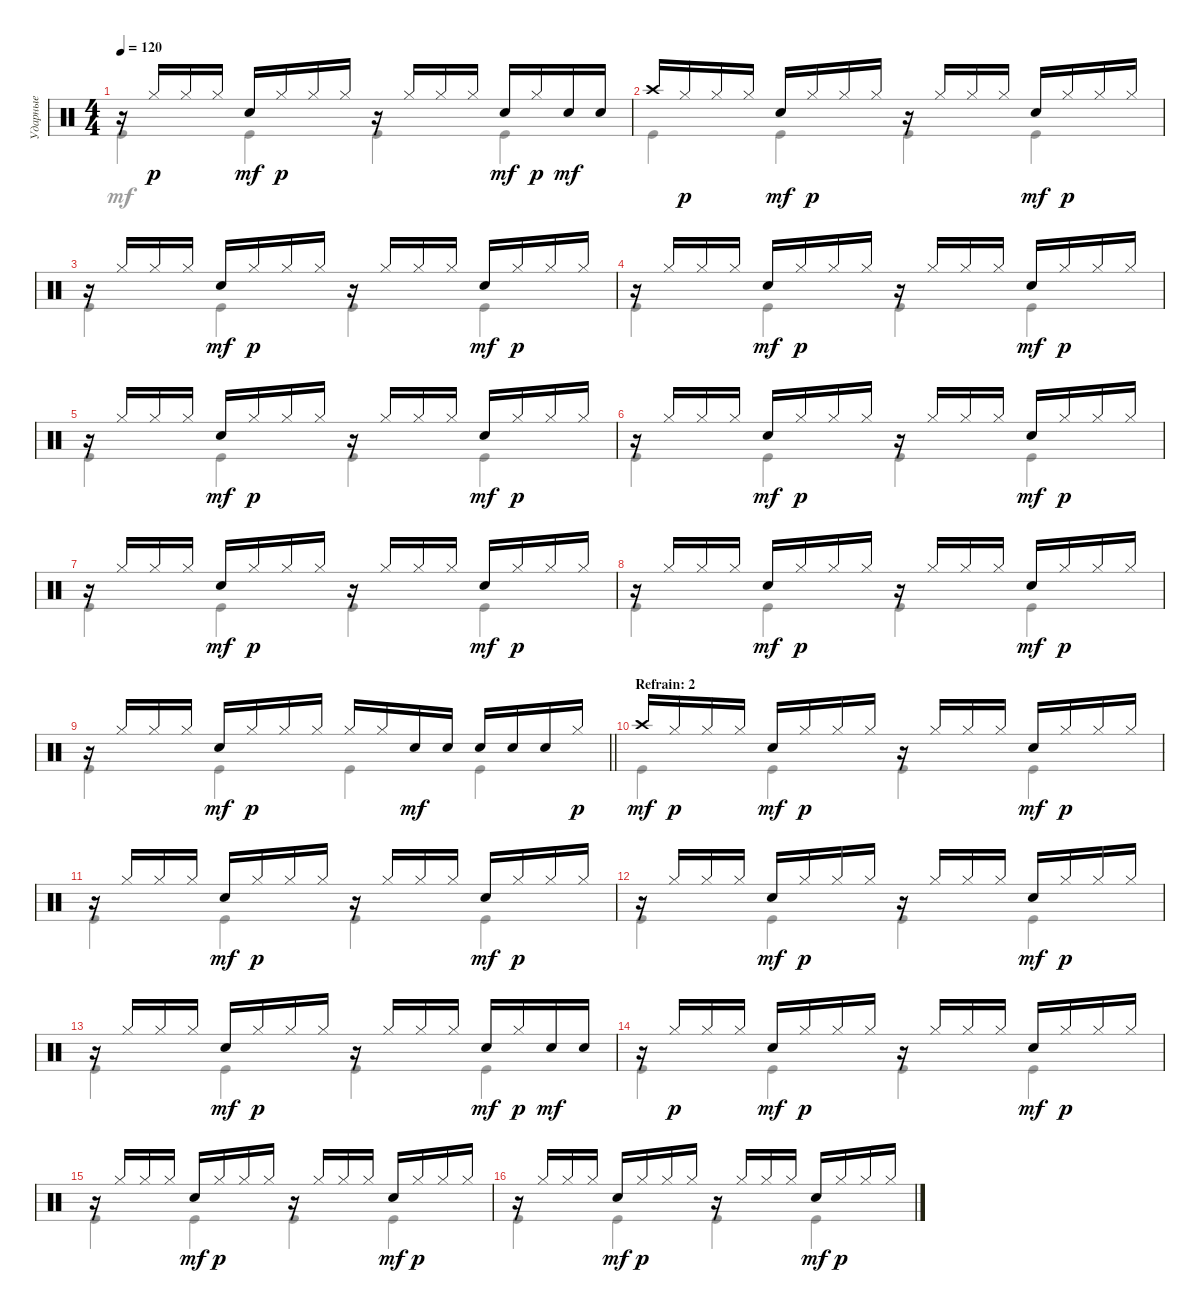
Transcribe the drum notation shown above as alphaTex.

\track ("Ударные" "Ударные") {instrument percussion}
\staff {score}
\articulation defaults
\voice
\ts (4 4)
\tempo 120
\clef neutral
\ks c
r.16{dy p} "Hi-Hat (closed)".16 "Hi-Hat (closed)".16 "Hi-Hat (closed)".16 "Snare (hit) 2".16{dy mf} "Hi-Hat (closed)".16{dy p} "Hi-Hat (closed)".16 "Hi-Hat (closed)".16 r.16 "Hi-Hat (closed)".16 "Hi-Hat (closed)".16 "Hi-Hat (closed)".16 "Snare (hit) 2".16{dy mf} "Hi-Hat (closed)".16{dy p} "Snare (hit) 2".16{dy mf} "Snare (hit) 2".16 |
"Crash high (hit)".16 "Hi-Hat (closed)".16{dy p} "Hi-Hat (closed)".16 "Hi-Hat (closed)".16 "Snare (hit) 2".16{dy mf} "Hi-Hat (closed)".16{dy p} "Hi-Hat (closed)".16 "Hi-Hat (closed)".16 r.16 "Hi-Hat (closed)".16 "Hi-Hat (closed)".16 "Hi-Hat (closed)".16 "Snare (hit) 2".16{dy mf} "Hi-Hat (closed)".16{dy p} "Hi-Hat (closed)".16 "Hi-Hat (closed)".16 |
r.16 "Hi-Hat (closed)".16 "Hi-Hat (closed)".16 "Hi-Hat (closed)".16 "Snare (hit) 2".16{dy mf} "Hi-Hat (closed)".16{dy p} "Hi-Hat (closed)".16 "Hi-Hat (closed)".16 r.16 "Hi-Hat (closed)".16 "Hi-Hat (closed)".16 "Hi-Hat (closed)".16 "Snare (hit) 2".16{dy mf} "Hi-Hat (closed)".16{dy p} "Hi-Hat (closed)".16 "Hi-Hat (closed)".16 |
r.16 "Hi-Hat (closed)".16 "Hi-Hat (closed)".16 "Hi-Hat (closed)".16 "Snare (hit) 2".16{dy mf} "Hi-Hat (closed)".16{dy p} "Hi-Hat (closed)".16 "Hi-Hat (closed)".16 r.16 "Hi-Hat (closed)".16 "Hi-Hat (closed)".16 "Hi-Hat (closed)".16 "Snare (hit) 2".16{dy mf} "Hi-Hat (closed)".16{dy p} "Hi-Hat (closed)".16 "Hi-Hat (closed)".16 |
r.16 "Hi-Hat (closed)".16 "Hi-Hat (closed)".16 "Hi-Hat (closed)".16 "Snare (hit) 2".16{dy mf} "Hi-Hat (closed)".16{dy p} "Hi-Hat (closed)".16 "Hi-Hat (closed)".16 r.16 "Hi-Hat (closed)".16 "Hi-Hat (closed)".16 "Hi-Hat (closed)".16 "Snare (hit) 2".16{dy mf} "Hi-Hat (closed)".16{dy p} "Hi-Hat (closed)".16 "Hi-Hat (closed)".16 |
r.16 "Hi-Hat (closed)".16 "Hi-Hat (closed)".16 "Hi-Hat (closed)".16 "Snare (hit) 2".16{dy mf} "Hi-Hat (closed)".16{dy p} "Hi-Hat (closed)".16 "Hi-Hat (closed)".16 r.16 "Hi-Hat (closed)".16 "Hi-Hat (closed)".16 "Hi-Hat (closed)".16 "Snare (hit) 2".16{dy mf} "Hi-Hat (closed)".16{dy p} "Hi-Hat (closed)".16 "Hi-Hat (closed)".16 |
r.16 "Hi-Hat (closed)".16 "Hi-Hat (closed)".16 "Hi-Hat (closed)".16 "Snare (hit) 2".16{dy mf} "Hi-Hat (closed)".16{dy p} "Hi-Hat (closed)".16 "Hi-Hat (closed)".16 r.16 "Hi-Hat (closed)".16 "Hi-Hat (closed)".16 "Hi-Hat (closed)".16 "Snare (hit) 2".16{dy mf} "Hi-Hat (closed)".16{dy p} "Hi-Hat (closed)".16 "Hi-Hat (closed)".16 |
r.16 "Hi-Hat (closed)".16 "Hi-Hat (closed)".16 "Hi-Hat (closed)".16 "Snare (hit) 2".16{dy mf} "Hi-Hat (closed)".16{dy p} "Hi-Hat (closed)".16 "Hi-Hat (closed)".16 r.16 "Hi-Hat (closed)".16 "Hi-Hat (closed)".16 "Hi-Hat (closed)".16 "Snare (hit) 2".16{dy mf} "Hi-Hat (closed)".16{dy p} "Hi-Hat (closed)".16 "Hi-Hat (closed)".16 |
\barLineRight lightlight
r.16 "Hi-Hat (closed)".16 "Hi-Hat (closed)".16 "Hi-Hat (closed)".16 "Snare (hit) 2".16{dy mf} "Hi-Hat (closed)".16{dy p} "Hi-Hat (closed)".16 "Hi-Hat (closed)".16 "Hi-Hat (closed)".16 "Hi-Hat (closed)".16 "Snare (hit) 2".16{dy mf} "Snare (hit) 2".16 "Snare (hit) 2".16 "Snare (hit) 2".16 "Snare (hit) 2".16 "Hi-Hat (closed)".16{dy p} |
\section ("" "Refrain: 2")
"Crash high (hit)".16{dy mf} "Hi-Hat (closed)".16{dy p} "Hi-Hat (closed)".16 "Hi-Hat (closed)".16 "Snare (hit) 2".16{dy mf} "Hi-Hat (closed)".16{dy p} "Hi-Hat (closed)".16 "Hi-Hat (closed)".16 r.16 "Hi-Hat (closed)".16 "Hi-Hat (closed)".16 "Hi-Hat (closed)".16 "Snare (hit) 2".16{dy mf} "Hi-Hat (closed)".16{dy p} "Hi-Hat (closed)".16 "Hi-Hat (closed)".16 |
r.16 "Hi-Hat (closed)".16 "Hi-Hat (closed)".16 "Hi-Hat (closed)".16 "Snare (hit) 2".16{dy mf} "Hi-Hat (closed)".16{dy p} "Hi-Hat (closed)".16 "Hi-Hat (closed)".16 r.16 "Hi-Hat (closed)".16 "Hi-Hat (closed)".16 "Hi-Hat (closed)".16 "Snare (hit) 2".16{dy mf} "Hi-Hat (closed)".16{dy p} "Hi-Hat (closed)".16 "Hi-Hat (closed)".16 |
r.16 "Hi-Hat (closed)".16 "Hi-Hat (closed)".16 "Hi-Hat (closed)".16 "Snare (hit) 2".16{dy mf} "Hi-Hat (closed)".16{dy p} "Hi-Hat (closed)".16 "Hi-Hat (closed)".16 r.16 "Hi-Hat (closed)".16 "Hi-Hat (closed)".16 "Hi-Hat (closed)".16 "Snare (hit) 2".16{dy mf} "Hi-Hat (closed)".16{dy p} "Hi-Hat (closed)".16 "Hi-Hat (closed)".16 |
r.16 "Hi-Hat (closed)".16 "Hi-Hat (closed)".16 "Hi-Hat (closed)".16 "Snare (hit) 2".16{dy mf} "Hi-Hat (closed)".16{dy p} "Hi-Hat (closed)".16 "Hi-Hat (closed)".16 r.16 "Hi-Hat (closed)".16 "Hi-Hat (closed)".16 "Hi-Hat (closed)".16 "Snare (hit) 2".16{dy mf} "Hi-Hat (closed)".16{dy p} "Snare (hit) 2".16{dy mf} "Snare (hit) 2".16 |
r.16 "Hi-Hat (closed)".16{dy p} "Hi-Hat (closed)".16 "Hi-Hat (closed)".16 "Snare (hit) 2".16{dy mf} "Hi-Hat (closed)".16{dy p} "Hi-Hat (closed)".16 "Hi-Hat (closed)".16 r.16 "Hi-Hat (closed)".16 "Hi-Hat (closed)".16 "Hi-Hat (closed)".16 "Snare (hit) 2".16{dy mf} "Hi-Hat (closed)".16{dy p} "Hi-Hat (closed)".16 "Hi-Hat (closed)".16 |
r.16 "Hi-Hat (closed)".16 "Hi-Hat (closed)".16 "Hi-Hat (closed)".16 "Snare (hit) 2".16{dy mf} "Hi-Hat (closed)".16{dy p} "Hi-Hat (closed)".16 "Hi-Hat (closed)".16 r.16 "Hi-Hat (closed)".16 "Hi-Hat (closed)".16 "Hi-Hat (closed)".16 "Snare (hit) 2".16{dy mf} "Hi-Hat (closed)".16{dy p} "Hi-Hat (closed)".16 "Hi-Hat (closed)".16 |
r.16 "Hi-Hat (closed)".16 "Hi-Hat (closed)".16 "Hi-Hat (closed)".16 "Snare (hit) 2".16{dy mf} "Hi-Hat (closed)".16{dy p} "Hi-Hat (closed)".16 "Hi-Hat (closed)".16 r.16 "Hi-Hat (closed)".16 "Hi-Hat (closed)".16 "Hi-Hat (closed)".16 "Snare (hit) 2".16{dy mf} "Hi-Hat (closed)".16{dy p} "Hi-Hat (closed)".16 "Hi-Hat (closed)".16
\voice
\clef neutral
\ottava regular
\simile none
\ks c "Kick (hit)".4{dy mf} "Kick (hit)".4 "Kick (hit)".4 "Kick (hit)".4
|
"Kick (hit)".4 "Kick (hit)".4 "Kick (hit)".4 "Kick (hit)".4 |
"Kick (hit)".4 "Kick (hit)".4 "Kick (hit)".4 "Kick (hit)".4 |
"Kick (hit)".4 "Kick (hit)".4 "Kick (hit)".4 "Kick (hit)".4 |
"Kick (hit)".4 "Kick (hit)".4 "Kick (hit)".4 "Kick (hit)".4 |
"Kick (hit)".4 "Kick (hit)".4 "Kick (hit)".4 "Kick (hit)".4 |
"Kick (hit)".4 "Kick (hit)".4 "Kick (hit)".4 "Kick (hit)".4 |
"Kick (hit)".4 "Kick (hit)".4 "Kick (hit)".4 "Kick (hit)".4 |
\barLineRight lightlight "Kick (hit)".4 "Kick (hit)".4 "Kick (hit)".4 "Kick (hit)".4
|
"Kick (hit)".4 "Kick (hit)".4 "Kick (hit)".4 "Kick (hit)".4 |
"Kick (hit)".4 "Kick (hit)".4 "Kick (hit)".4 "Kick (hit)".4 |
"Kick (hit)".4 "Kick (hit)".4 "Kick (hit)".4 "Kick (hit)".4 |
"Kick (hit)".4 "Kick (hit)".4 "Kick (hit)".4 "Kick (hit)".4 |
"Kick (hit)".4 "Kick (hit)".4 "Kick (hit)".4 "Kick (hit)".4 |
"Kick (hit)".4 "Kick (hit)".4 "Kick (hit)".4 "Kick (hit)".4 |
"Kick (hit)".4 "Kick (hit)".4 "Kick (hit)".4 "Kick (hit)".4
